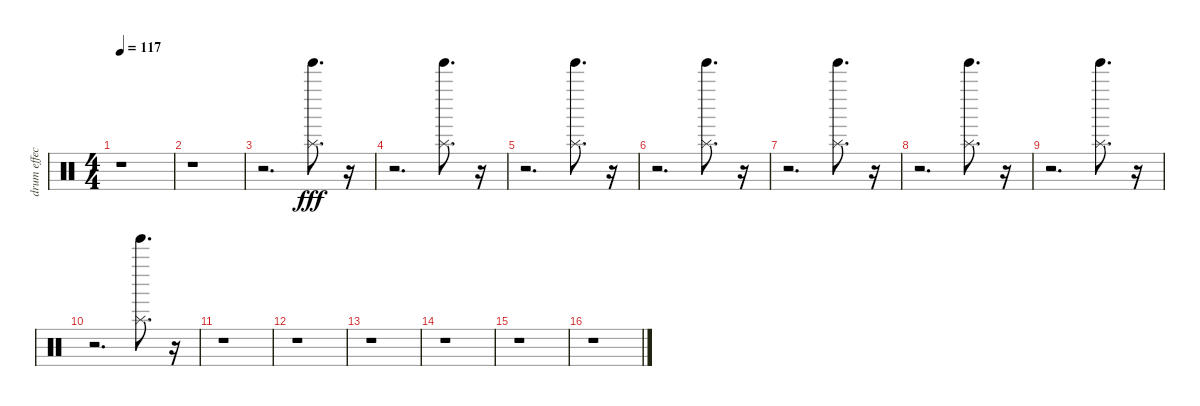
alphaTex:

\track ("drum effect" "drum effec") {instrument percussion}
\staff {score}
\articulation defaults
\ts (4 4)
\tempo 117
\clef neutral
\ks c
r.1{dy fff} |
r.1 |
r.2{d} ("Splash (hit)" "Tinkle Bell (hit)").8{d} r.16 |
r.2{d} ("Splash (hit)" "Tinkle Bell (hit)").8{d} r.16 |
r.2{d} ("Splash (hit)" "Tinkle Bell (hit)").8{d} r.16 |
r.2{d} ("Splash (hit)" "Tinkle Bell (hit)").8{d} r.16 |
r.2{d} ("Splash (hit)" "Tinkle Bell (hit)").8{d} r.16 |
r.2{d} ("Splash (hit)" "Tinkle Bell (hit)").8{d} r.16 |
r.2{d} ("Splash (hit)" "Tinkle Bell (hit)").8{d} r.16 |
r.2{d} ("Splash (hit)" "Tinkle Bell (hit)").8{d} r.16 |
r.1 |
r.1 |
r.1 |
r.1 |
r.1 |
r.1
